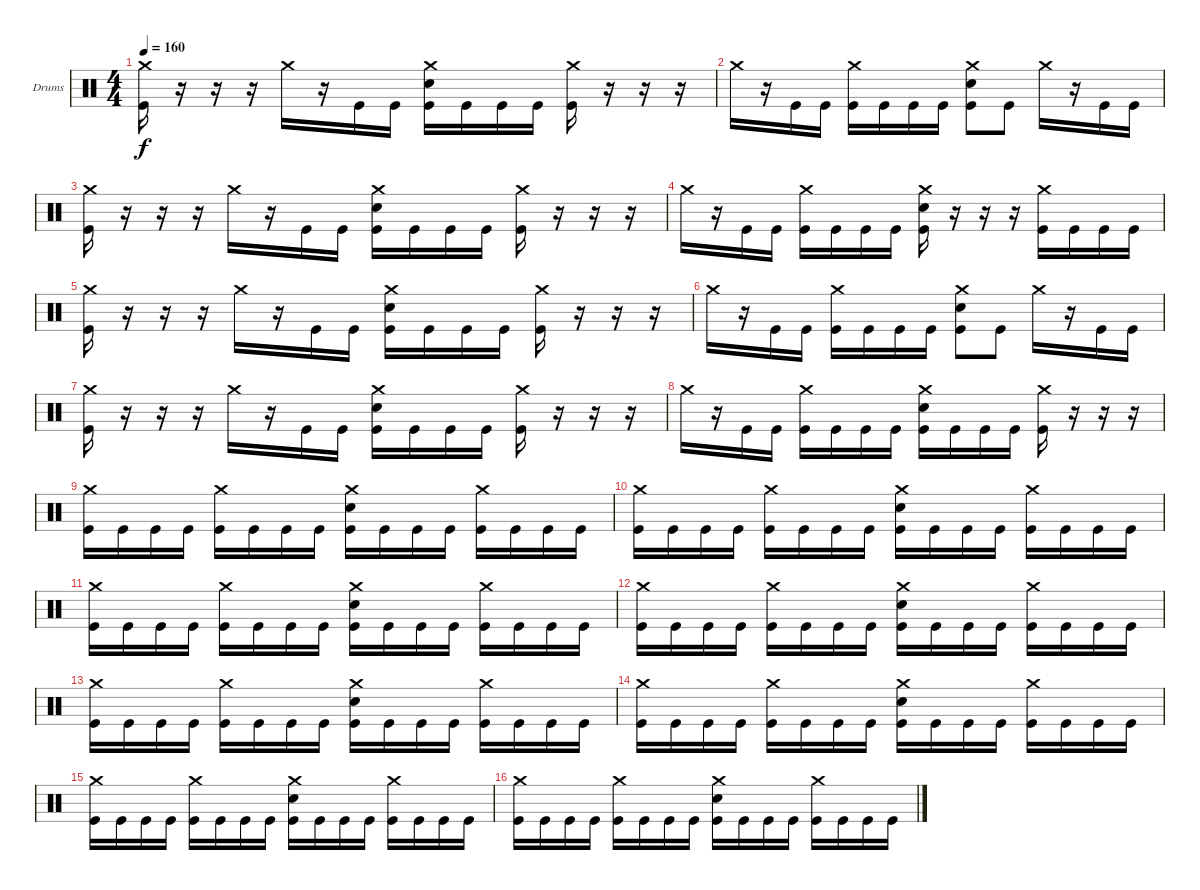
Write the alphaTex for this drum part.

\bracketExtendMode groupsimilarinstruments
\firstSystemTrackNameOrientation horizontal
\otherSystemsTrackNameOrientation horizontal
\track ("Drumkit" "Drums") {instrument percussion}
\staff {score}
\articulation defaults
\ts (4 4)
\tempo 160
\clef neutral
\ks c
("Crash medium (hit)" "Kick (hit)").16{dy f} r.16 r.16 r.16 "Crash medium (hit)".16 r.16 "Kick (hit)".16 "Kick (hit)".16 ("Crash medium (hit)" "Snare (hit) 2" "Kick (hit)").16 "Kick (hit)".16 "Kick (hit)".16 "Kick (hit)".16 ("Crash medium (hit)" "Kick (hit)").16 r.16 r.16 r.16 |
"Crash medium (hit)".16 r.16 "Kick (hit)".16 "Kick (hit)".16 ("Crash medium (hit)" "Kick (hit)").16 "Kick (hit)".16 "Kick (hit)".16 "Kick (hit)".16 ("Crash medium (hit)" "Snare (hit) 2" "Kick (hit)").8 "Kick (hit)".8 "Crash medium (hit)".16 r.16 "Kick (hit)".16 "Kick (hit)".16 |
("Crash medium (hit)" "Kick (hit)").16 r.16 r.16 r.16 "Crash medium (hit)".16 r.16 "Kick (hit)".16 "Kick (hit)".16 ("Crash medium (hit)" "Snare (hit) 2" "Kick (hit)").16 "Kick (hit)".16 "Kick (hit)".16 "Kick (hit)".16 ("Crash medium (hit)" "Kick (hit)").16 r.16 r.16 r.16 |
"Crash medium (hit)".16 r.16 "Kick (hit)".16 "Kick (hit)".16 ("Crash medium (hit)" "Kick (hit)").16 "Kick (hit)".16 "Kick (hit)".16 "Kick (hit)".16 ("Crash medium (hit)" "Snare (hit) 2" "Kick (hit)").16 r.16 r.16 r.16 ("Crash medium (hit)" "Kick (hit)").16 "Kick (hit)".16 "Kick (hit)".16 "Kick (hit)".16 |
("Crash medium (hit)" "Kick (hit)").16 r.16 r.16 r.16 "Crash medium (hit)".16 r.16 "Kick (hit)".16 "Kick (hit)".16 ("Crash medium (hit)" "Snare (hit) 2" "Kick (hit)").16 "Kick (hit)".16 "Kick (hit)".16 "Kick (hit)".16 ("Crash medium (hit)" "Kick (hit)").16 r.16 r.16 r.16 |
"Crash medium (hit)".16 r.16 "Kick (hit)".16 "Kick (hit)".16 ("Crash medium (hit)" "Kick (hit)").16 "Kick (hit)".16 "Kick (hit)".16 "Kick (hit)".16 ("Crash medium (hit)" "Snare (hit) 2" "Kick (hit)").8 "Kick (hit)".8 "Crash medium (hit)".16 r.16 "Kick (hit)".16 "Kick (hit)".16 |
("Crash medium (hit)" "Kick (hit)").16 r.16 r.16 r.16 "Crash medium (hit)".16 r.16 "Kick (hit)".16 "Kick (hit)".16 ("Crash medium (hit)" "Snare (hit) 2" "Kick (hit)").16 "Kick (hit)".16 "Kick (hit)".16 "Kick (hit)".16 ("Crash medium (hit)" "Kick (hit)").16 r.16 r.16 r.16 |
"Crash medium (hit)".16 r.16 "Kick (hit)".16 "Kick (hit)".16 ("Crash medium (hit)" "Kick (hit)").16 "Kick (hit)".16 "Kick (hit)".16 "Kick (hit)".16 ("Crash medium (hit)" "Snare (hit) 2" "Kick (hit)").16 "Kick (hit)".16 "Kick (hit)".16 "Kick (hit)".16 ("Crash medium (hit)" "Kick (hit)").16 r.16 r.16 r.16 |
("Crash medium (hit)" "Kick (hit)").16 "Kick (hit)".16 "Kick (hit)".16 "Kick (hit)".16 ("Crash medium (hit)" "Kick (hit)").16 "Kick (hit)".16 "Kick (hit)".16 "Kick (hit)".16 ("Crash medium (hit)" "Snare (hit) 2" "Kick (hit)").16 "Kick (hit)".16 "Kick (hit)".16 "Kick (hit)".16 ("Crash medium (hit)" "Kick (hit)").16 "Kick (hit)".16 "Kick (hit)".16 "Kick (hit)".16 |
("Crash medium (hit)" "Kick (hit)").16 "Kick (hit)".16 "Kick (hit)".16 "Kick (hit)".16 ("Crash medium (hit)" "Kick (hit)").16 "Kick (hit)".16 "Kick (hit)".16 "Kick (hit)".16 ("Crash medium (hit)" "Snare (hit) 2" "Kick (hit)").16 "Kick (hit)".16 "Kick (hit)".16 "Kick (hit)".16 ("Crash medium (hit)" "Kick (hit)").16 "Kick (hit)".16 "Kick (hit)".16 "Kick (hit)".16 |
("Crash medium (hit)" "Kick (hit)").16 "Kick (hit)".16 "Kick (hit)".16 "Kick (hit)".16 ("Crash medium (hit)" "Kick (hit)").16 "Kick (hit)".16 "Kick (hit)".16 "Kick (hit)".16 ("Crash medium (hit)" "Snare (hit) 2" "Kick (hit)").16 "Kick (hit)".16 "Kick (hit)".16 "Kick (hit)".16 ("Crash medium (hit)" "Kick (hit)").16 "Kick (hit)".16 "Kick (hit)".16 "Kick (hit)".16 |
("Crash medium (hit)" "Kick (hit)").16 "Kick (hit)".16 "Kick (hit)".16 "Kick (hit)".16 ("Crash medium (hit)" "Kick (hit)").16 "Kick (hit)".16 "Kick (hit)".16 "Kick (hit)".16 ("Crash medium (hit)" "Snare (hit) 2" "Kick (hit)").16 "Kick (hit)".16 "Kick (hit)".16 "Kick (hit)".16 ("Crash medium (hit)" "Kick (hit)").16 "Kick (hit)".16 "Kick (hit)".16 "Kick (hit)".16 |
("Crash medium (hit)" "Kick (hit)").16 "Kick (hit)".16 "Kick (hit)".16 "Kick (hit)".16 ("Crash medium (hit)" "Kick (hit)").16 "Kick (hit)".16 "Kick (hit)".16 "Kick (hit)".16 ("Crash medium (hit)" "Snare (hit) 2" "Kick (hit)").16 "Kick (hit)".16 "Kick (hit)".16 "Kick (hit)".16 ("Crash medium (hit)" "Kick (hit)").16 "Kick (hit)".16 "Kick (hit)".16 "Kick (hit)".16 |
("Crash medium (hit)" "Kick (hit)").16 "Kick (hit)".16 "Kick (hit)".16 "Kick (hit)".16 ("Crash medium (hit)" "Kick (hit)").16 "Kick (hit)".16 "Kick (hit)".16 "Kick (hit)".16 ("Crash medium (hit)" "Snare (hit) 2" "Kick (hit)").16 "Kick (hit)".16 "Kick (hit)".16 "Kick (hit)".16 ("Crash medium (hit)" "Kick (hit)").16 "Kick (hit)".16 "Kick (hit)".16 "Kick (hit)".16 |
("Crash medium (hit)" "Kick (hit)").16 "Kick (hit)".16 "Kick (hit)".16 "Kick (hit)".16 ("Crash medium (hit)" "Kick (hit)").16 "Kick (hit)".16 "Kick (hit)".16 "Kick (hit)".16 ("Crash medium (hit)" "Snare (hit) 2" "Kick (hit)").16 "Kick (hit)".16 "Kick (hit)".16 "Kick (hit)".16 ("Crash medium (hit)" "Kick (hit)").16 "Kick (hit)".16 "Kick (hit)".16 "Kick (hit)".16 |
("Crash medium (hit)" "Kick (hit)").16 "Kick (hit)".16 "Kick (hit)".16 "Kick (hit)".16 ("Crash medium (hit)" "Kick (hit)").16 "Kick (hit)".16 "Kick (hit)".16 "Kick (hit)".16 ("Crash medium (hit)" "Snare (hit) 2" "Kick (hit)").16 "Kick (hit)".16 "Kick (hit)".16 "Kick (hit)".16 ("Crash medium (hit)" "Kick (hit)").16 "Kick (hit)".16 "Kick (hit)".16 "Kick (hit)".16
